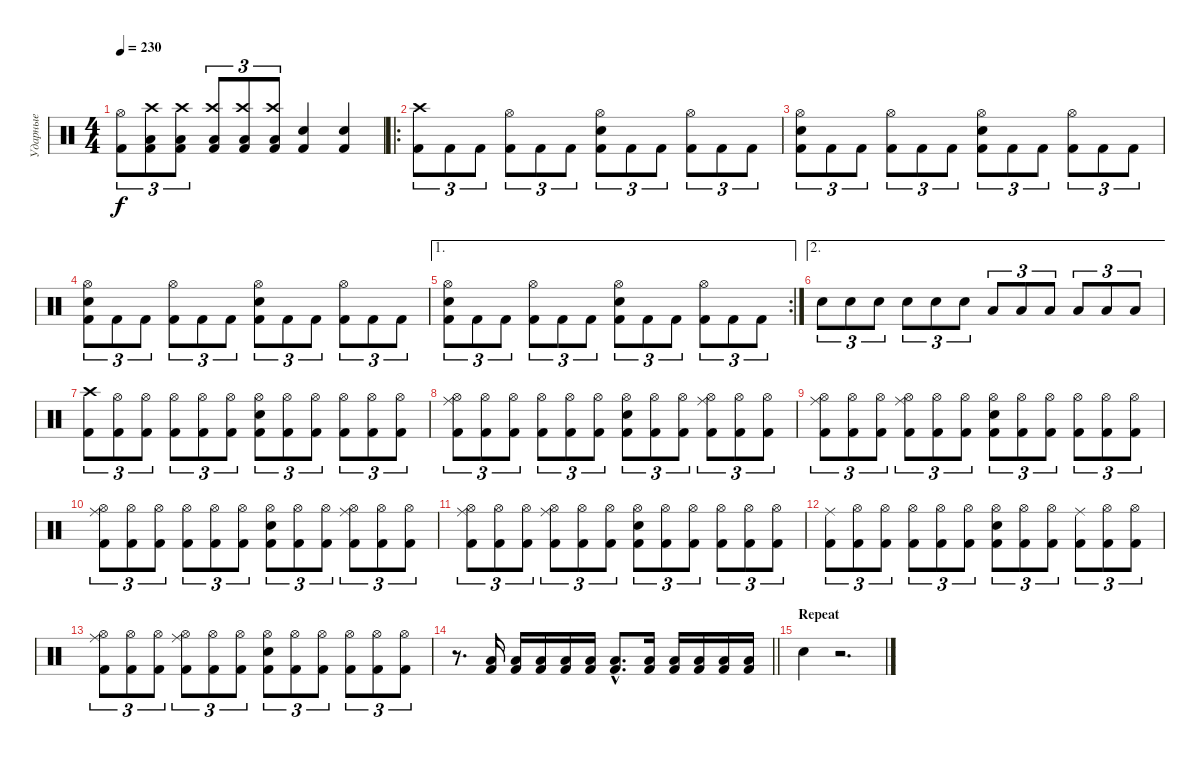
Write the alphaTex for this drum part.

\track ("Ударные" "Ударные") {instrument percussion}
\staff {score}
\articulation defaults
\ts (4 4)
\tempo 230
\clef neutral
\ks c
("Hi-Hat (open)" "Kick (hit) 2").8{tu (3 2) dy f} ("Crash high (hit)" "Low Tom (hit)" "Kick (hit) 2").8{tu (3 2)} ("Crash high (hit)" "Low Tom (hit)" "Kick (hit) 2").8{tu (3 2)} ("Crash high (hit)" "Low Floor Tom (hit)" "Kick (hit) 2").8{tu (3 2)} ("Crash high (hit)" "Low Floor Tom (hit)" "Kick (hit) 2").8{tu (3 2)} ("Crash high (hit)" "Low Floor Tom (hit)" "Kick (hit) 2").8{tu (3 2)} ("Snare (hit) 2" "Kick (hit) 2").4 ("Snare (hit) 2" "Kick (hit) 2").4 |
\ro
("Crash high (hit)" "Kick (hit) 2").8{tu (3 2)} "Kick (hit) 2".8{tu (3 2)} "Kick (hit) 2".8{tu (3 2)} ("Hi-Hat (open)" "Kick (hit) 2").8{tu (3 2)} "Kick (hit) 2".8{tu (3 2)} "Kick (hit) 2".8{tu (3 2)} ("Hi-Hat (open)" "Snare (hit) 2" "Kick (hit) 2").8{tu (3 2)} "Kick (hit) 2".8{tu (3 2)} "Kick (hit) 2".8{tu (3 2)} ("Hi-Hat (open)" "Kick (hit) 2").8{tu (3 2)} "Kick (hit) 2".8{tu (3 2)} "Kick (hit) 2".8{tu (3 2)} |
("Hi-Hat (open)" "Snare (hit) 2" "Kick (hit) 2").8{tu (3 2)} "Kick (hit) 2".8{tu (3 2)} "Kick (hit) 2".8{tu (3 2)} ("Hi-Hat (open)" "Kick (hit) 2").8{tu (3 2)} "Kick (hit) 2".8{tu (3 2)} "Kick (hit) 2".8{tu (3 2)} ("Hi-Hat (open)" "Snare (hit) 2" "Kick (hit) 2").8{tu (3 2)} "Kick (hit) 2".8{tu (3 2)} "Kick (hit) 2".8{tu (3 2)} ("Hi-Hat (open)" "Kick (hit) 2").8{tu (3 2)} "Kick (hit) 2".8{tu (3 2)} "Kick (hit) 2".8{tu (3 2)} |
("Hi-Hat (open)" "Snare (hit) 2" "Kick (hit) 2").8{tu (3 2)} "Kick (hit) 2".8{tu (3 2)} "Kick (hit) 2".8{tu (3 2)} ("Hi-Hat (open)" "Kick (hit) 2").8{tu (3 2)} "Kick (hit) 2".8{tu (3 2)} "Kick (hit) 2".8{tu (3 2)} ("Hi-Hat (open)" "Snare (hit) 2" "Kick (hit) 2").8{tu (3 2)} "Kick (hit) 2".8{tu (3 2)} "Kick (hit) 2".8{tu (3 2)} ("Hi-Hat (open)" "Kick (hit) 2").8{tu (3 2)} "Kick (hit) 2".8{tu (3 2)} "Kick (hit) 2".8{tu (3 2)} |
\ae 1
\rc 2
("Hi-Hat (open)" "Snare (hit) 2" "Kick (hit) 2").8{tu (3 2)} "Kick (hit) 2".8{tu (3 2)} "Kick (hit) 2".8{tu (3 2)} ("Hi-Hat (open)" "Kick (hit) 2").8{tu (3 2)} "Kick (hit) 2".8{tu (3 2)} "Kick (hit) 2".8{tu (3 2)} ("Hi-Hat (open)" "Snare (hit) 2" "Kick (hit) 2").8{tu (3 2)} "Kick (hit) 2".8{tu (3 2)} "Kick (hit) 2".8{tu (3 2)} ("Hi-Hat (open)" "Kick (hit) 2").8{tu (3 2)} "Kick (hit) 2".8{tu (3 2)} "Kick (hit) 2".8{tu (3 2)} |
\ae 2 "Snare (hit) 2".8{tu (3 2)} "Snare (hit) 2".8{tu (3 2)} "Snare (hit) 2".8{tu (3 2)} "Snare (hit) 2".8{tu (3 2)} "Snare (hit) 2".8{tu (3 2)} "Snare (hit) 2".8{tu (3 2)} "Low Tom (hit)".8{tu (3 2)} "Low Tom (hit)".8{tu (3 2)} "Low Tom (hit)".8{tu (3 2)} "Low Floor Tom (hit)".8{tu (3 2)} "Low Floor Tom (hit)".8{tu (3 2)} "Low Floor Tom (hit)".8{tu (3 2)}
|
("Crash high (hit)" "Kick (hit) 2").8{tu (3 2)} ("Hi-Hat (open)" "Kick (hit) 2").8{tu (3 2)} ("Hi-Hat (open)" "Kick (hit) 2").8{tu (3 2)} ("Hi-Hat (open)" "Kick (hit) 2").8{tu (3 2)} ("Hi-Hat (open)" "Kick (hit) 2").8{tu (3 2)} ("Hi-Hat (open)" "Kick (hit) 2").8{tu (3 2)} ("Hi-Hat (open)" "Snare (hit) 2" "Kick (hit) 2").8{tu (3 2)} ("Hi-Hat (open)" "Kick (hit) 2").8{tu (3 2)} ("Hi-Hat (open)" "Kick (hit) 2").8{tu (3 2)} ("Hi-Hat (open)" "Kick (hit) 2").8{tu (3 2)} ("Hi-Hat (open)" "Kick (hit) 2").8{tu (3 2)} ("Hi-Hat (open)" "Kick (hit) 2").8{tu (3 2)} |
("Ride (middle)" "Kick (hit) 2" "Hi-Hat (open)").8{tu (3 2)} ("Hi-Hat (open)" "Kick (hit) 2").8{tu (3 2)} ("Hi-Hat (open)" "Kick (hit) 2").8{tu (3 2)} ("Hi-Hat (open)" "Kick (hit) 2").8{tu (3 2)} ("Hi-Hat (open)" "Kick (hit) 2").8{tu (3 2)} ("Hi-Hat (open)" "Kick (hit) 2").8{tu (3 2)} ("Snare (hit) 2" "Kick (hit) 2" "Hi-Hat (open)").8{tu (3 2)} ("Hi-Hat (open)" "Kick (hit) 2").8{tu (3 2)} ("Hi-Hat (open)" "Kick (hit) 2").8{tu (3 2)} ("Ride (middle)" "Kick (hit) 2" "Hi-Hat (open)").8{tu (3 2)} ("Hi-Hat (open)" "Kick (hit) 2").8{tu (3 2)} ("Hi-Hat (open)" "Kick (hit) 2").8{tu (3 2)} |
("Ride (middle)" "Kick (hit) 2" "Hi-Hat (open)").8{tu (3 2)} ("Hi-Hat (open)" "Kick (hit) 2").8{tu (3 2)} ("Hi-Hat (open)" "Kick (hit) 2").8{tu (3 2)} ("Ride (middle)" "Kick (hit) 2" "Hi-Hat (open)").8{tu (3 2)} ("Hi-Hat (open)" "Kick (hit) 2").8{tu (3 2)} ("Hi-Hat (open)" "Kick (hit) 2").8{tu (3 2)} ("Snare (hit) 2" "Kick (hit) 2" "Hi-Hat (open)").8{tu (3 2)} ("Hi-Hat (open)" "Kick (hit) 2").8{tu (3 2)} ("Hi-Hat (open)" "Kick (hit) 2").8{tu (3 2)} ("Hi-Hat (open)" "Kick (hit) 2").8{tu (3 2)} ("Hi-Hat (open)" "Kick (hit) 2").8{tu (3 2)} ("Hi-Hat (open)" "Kick (hit) 2").8{tu (3 2)} |
("Ride (middle)" "Kick (hit) 2" "Hi-Hat (open)").8{tu (3 2)} ("Hi-Hat (open)" "Kick (hit) 2").8{tu (3 2)} ("Hi-Hat (open)" "Kick (hit) 2").8{tu (3 2)} ("Kick (hit) 2" "Hi-Hat (open)").8{tu (3 2)} ("Hi-Hat (open)" "Kick (hit) 2").8{tu (3 2)} ("Hi-Hat (open)" "Kick (hit) 2").8{tu (3 2)} ("Snare (hit) 2" "Kick (hit) 2" "Hi-Hat (open)").8{tu (3 2)} ("Hi-Hat (open)" "Kick (hit) 2").8{tu (3 2)} ("Hi-Hat (open)" "Kick (hit) 2").8{tu (3 2)} ("Ride (middle)" "Hi-Hat (open)" "Kick (hit) 2").8{tu (3 2)} ("Hi-Hat (open)" "Kick (hit) 2").8{tu (3 2)} ("Hi-Hat (open)" "Kick (hit) 2").8{tu (3 2)} |
("Ride (middle)" "Kick (hit) 2" "Hi-Hat (open)").8{tu (3 2)} ("Hi-Hat (open)" "Kick (hit) 2").8{tu (3 2)} ("Hi-Hat (open)" "Kick (hit) 2").8{tu (3 2)} ("Ride (middle)" "Kick (hit) 2" "Hi-Hat (open)").8{tu (3 2)} ("Hi-Hat (open)" "Kick (hit) 2").8{tu (3 2)} ("Hi-Hat (open)" "Kick (hit) 2").8{tu (3 2)} ("Snare (hit) 2" "Kick (hit) 2" "Hi-Hat (open)").8{tu (3 2)} ("Hi-Hat (open)" "Kick (hit) 2").8{tu (3 2)} ("Hi-Hat (open)" "Kick (hit) 2").8{tu (3 2)} ("Hi-Hat (open)" "Kick (hit) 2").8{tu (3 2)} ("Hi-Hat (open)" "Kick (hit) 2").8{tu (3 2)} ("Hi-Hat (open)" "Kick (hit) 2").8{tu (3 2)} |
("Ride (middle)" "Kick (hit) 2").8{tu (3 2)} ("Hi-Hat (open)" "Kick (hit) 2").8{tu (3 2)} ("Hi-Hat (open)" "Kick (hit) 2").8{tu (3 2)} ("Hi-Hat (open)" "Kick (hit) 2").8{tu (3 2)} ("Hi-Hat (open)" "Kick (hit) 2").8{tu (3 2)} ("Hi-Hat (open)" "Kick (hit) 2").8{tu (3 2)} ("Snare (hit) 2" "Kick (hit) 2" "Hi-Hat (open)").8{tu (3 2)} ("Hi-Hat (open)" "Kick (hit) 2").8{tu (3 2)} ("Hi-Hat (open)" "Kick (hit) 2").8{tu (3 2)} ("Ride (middle)" "Kick (hit) 2").8{tu (3 2)} ("Hi-Hat (open)" "Kick (hit) 2").8{tu (3 2)} ("Hi-Hat (open)" "Kick (hit) 2").8{tu (3 2)} |
("Ride (middle)" "Kick (hit) 2" "Hi-Hat (open)").8{tu (3 2)} ("Hi-Hat (open)" "Kick (hit) 2").8{tu (3 2)} ("Hi-Hat (open)" "Kick (hit) 2").8{tu (3 2)} ("Ride (middle)" "Kick (hit) 2" "Hi-Hat (open)").8{tu (3 2)} ("Hi-Hat (open)" "Kick (hit) 2").8{tu (3 2)} ("Hi-Hat (open)" "Kick (hit) 2").8{tu (3 2)} ("Snare (hit) 2" "Kick (hit) 2" "Hi-Hat (open)").8{tu (3 2)} ("Hi-Hat (open)" "Kick (hit) 2").8{tu (3 2)} ("Hi-Hat (open)" "Kick (hit) 2").8{tu (3 2)} ("Kick (hit) 2" "Hi-Hat (open)").8{tu (3 2)} ("Hi-Hat (open)" "Kick (hit) 2").8{tu (3 2)} ("Hi-Hat (open)" "Kick (hit) 2").8{tu (3 2)} |
\barLineRight lightlight
r.8{d} ("Low Floor Tom (hit)" "Kick (hit) 2").16 ("Low Floor Tom (hit)" "Kick (hit) 2").16 ("Low Floor Tom (hit)" "Kick (hit) 2").16 ("Low Floor Tom (hit)" "Kick (hit) 2").16 ("Low Floor Tom (hit)" "Kick (hit) 2").16 ("Low Floor Tom (hit)"{hac} "Kick (hit) 2"{hac}).8{d} ("Low Floor Tom (hit)" "Kick (hit) 2").16 ("Low Floor Tom (hit)" "Kick (hit) 2").16 ("Low Floor Tom (hit)" "Kick (hit) 2").16 ("Low Floor Tom (hit)" "Kick (hit) 2").16 ("Low Floor Tom (hit)" "Kick (hit) 2").16 |
\section ("" "Repeat")
"Snare (hit) 2".4 r.2{d}
